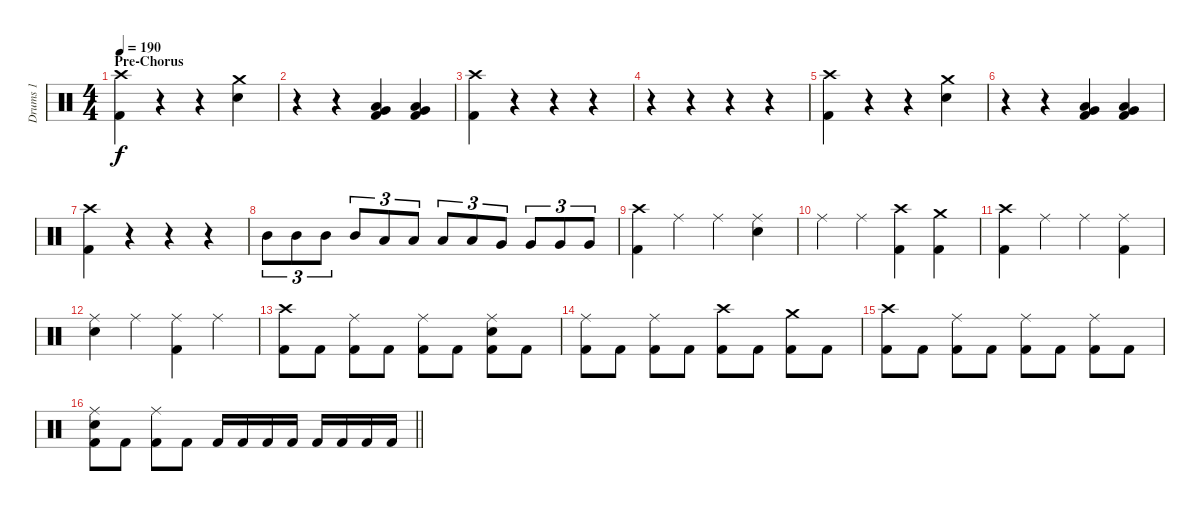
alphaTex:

\track ("Drums 1" "Drums 1") {instrument percussion}
\staff {score}
\articulation defaults
\ts (4 4)
\section ("" "Pre-Chorus")
\tempo 190
\clef neutral
\ks c
("Crash high (hit)" "Kick (hit) 2").4{dy f} r.4 r.4 ("Crash medium (hit)" "Snare (hit) 2").4 |
r.4 r.4 ("Very Low Tom (hit)" "Low Floor Tom (hit)" "Kick (hit) 2").4 ("Very Low Tom (hit)" "Low Floor Tom (hit)" "Kick (hit) 2").4 |
("Crash high (hit)" "Kick (hit) 2").4 r.4 r.4 r.4 |
r.4 r.4 r.4 r.4 |
("Crash high (hit)" "Kick (hit) 2").4 r.4 r.4 ("Crash medium (hit)" "Snare (hit) 2").4 |
r.4 r.4 ("Very Low Tom (hit)" "Low Floor Tom (hit)" "Kick (hit) 2").4 ("Very Low Tom (hit)" "Low Floor Tom (hit)" "Kick (hit) 2").4 |
("Crash high (hit)" "Kick (hit) 2").4 r.4 r.4 r.4 |
"Mid Tom (hit)".8{tu (3 2)} "Mid Tom (hit)".8{tu (3 2)} "Mid Tom (hit)".8{tu (3 2)} "Mid Tom (hit)".8{tu (3 2)} "Low Tom (hit)".8{tu (3 2)} "Low Tom (hit)".8{tu (3 2)} "Low Tom (hit)".8{tu (3 2)} "Low Tom (hit)".8{tu (3 2)} "Very Low Tom (hit)".8{tu (3 2)} "Very Low Tom (hit)".8{tu (3 2)} "Very Low Tom (hit)".8{tu (3 2)} "Very Low Tom (hit)".8{tu (3 2)} |
("Crash high (hit)" "Kick (hit) 2").4 "Ride (middle)".4 "Ride (middle)".4 ("Ride (middle)" "Snare (hit) 2").4 |
"Ride (middle)".4 "Ride (middle)".4 ("Crash high (hit)" "Kick (hit) 2").4 ("Crash medium (hit)" "Kick (hit) 2").4 |
("Crash high (hit)" "Kick (hit) 2").4 "Ride (middle)".4 "Ride (middle)".4 ("Ride (middle)" "Kick (hit) 2").4 |
("Ride (middle)" "Snare (hit) 2").4 "Ride (middle)".4 ("Ride (middle)" "Kick (hit) 2").4 "Ride (middle)".4 |
("Crash high (hit)" "Kick (hit) 2").8 "Kick (hit) 2".8 ("Ride (middle)" "Kick (hit) 2").8 "Kick (hit) 2".8 ("Ride (middle)" "Kick (hit) 2").8 "Kick (hit) 2".8 ("Ride (middle)" "Snare (hit) 2" "Kick (hit) 2").8 "Kick (hit) 2".8 |
("Ride (middle)" "Kick (hit) 2").8 "Kick (hit) 2".8 ("Ride (middle)" "Kick (hit) 2").8 "Kick (hit) 2".8 ("Crash high (hit)" "Kick (hit) 2").8 "Kick (hit) 2".8 ("Crash medium (hit)" "Kick (hit) 2").8 "Kick (hit) 2".8 |
("Crash high (hit)" "Kick (hit) 2").8 "Kick (hit) 2".8 ("Ride (middle)" "Kick (hit) 2").8 "Kick (hit) 2".8 ("Ride (middle)" "Kick (hit) 2").8 "Kick (hit) 2".8 ("Ride (middle)" "Kick (hit) 2").8 "Kick (hit) 2".8 |
\barLineRight lightlight
("Ride (middle)" "Snare (hit) 2" "Kick (hit) 2").8 "Kick (hit) 2".8 ("Ride (middle)" "Kick (hit) 2").8 "Kick (hit) 2".8 "Kick (hit) 2".16 "Kick (hit) 2".16 "Kick (hit) 2".16 "Kick (hit) 2".16 "Kick (hit) 2".16 "Kick (hit) 2".16 "Kick (hit) 2".16 "Kick (hit) 2".16
